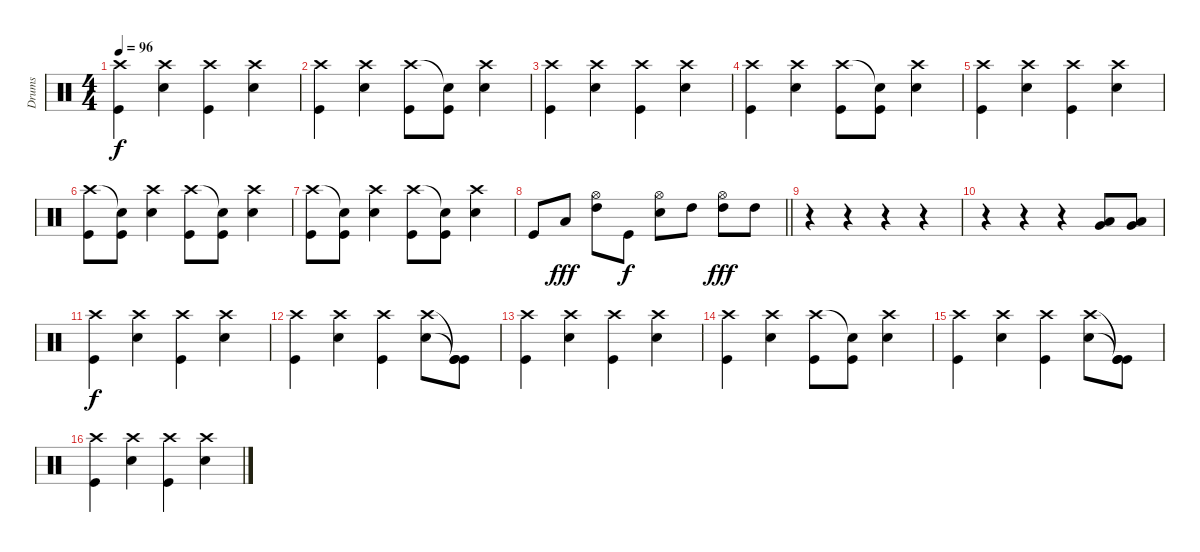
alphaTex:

\track ("Drums" "Drums") {instrument percussion}
\staff {score}
\articulation defaults
\ts (4 4)
\tempo 96
\clef neutral
\ks c
("Kick (hit)" "Crash high (hit)").4{dy f} ("Snare (hit) 2" "Crash high (hit)").4 ("Kick (hit)" "Crash high (hit)").4 ("Snare (hit) 2" "Crash high (hit)").4 |
("Kick (hit)" "Crash high (hit)").4 ("Snare (hit) 2" "Crash high (hit)").4 ("Kick (hit)" "Crash high (hit)").8 ("Kick (hit)" "Snare (hit)"{t}).8 ("Snare (hit) 2" "Crash high (hit)").4 |
("Kick (hit)" "Crash high (hit)").4 ("Snare (hit) 2" "Crash high (hit)").4 ("Kick (hit)" "Crash high (hit)").4 ("Snare (hit) 2" "Crash high (hit)").4 |
("Kick (hit)" "Crash high (hit)").4 ("Snare (hit) 2" "Crash high (hit)").4 ("Kick (hit)" "Crash high (hit)").8 ("Kick (hit)" "Snare (hit)"{t}).8 ("Snare (hit) 2" "Crash high (hit)").4 |
("Kick (hit)" "Crash high (hit)").4 ("Snare (hit) 2" "Crash high (hit)").4 ("Kick (hit)" "Crash high (hit)").4 ("Snare (hit) 2" "Crash high (hit)").4 |
("Kick (hit)" "Crash high (hit)").8 ("Kick (hit)" "Snare (hit)"{t}).8 ("Snare (hit) 2" "Crash high (hit)").4 ("Kick (hit)" "Crash high (hit)").8 ("Kick (hit)" "Snare (hit)"{t}).8 ("Snare (hit) 2" "Crash high (hit)").4 |
("Kick (hit)" "Crash high (hit)").8 ("Kick (hit)" "Snare (hit)"{t}).8 ("Snare (hit) 2" "Crash high (hit)").4 ("Kick (hit)" "Crash high (hit)").8 ("Kick (hit)" "Snare (hit)"{t}).8 ("Snare (hit) 2" "Crash high (hit)").4 |
\barLineRight lightlight "Kick (hit)".8 "Low Tom (hit)".8{dy fff}
("High Tom (hit)" "Hi-Hat (open)").8 "Kick (hit)".8{dy f} ("Snare (hit) 2" "Hi-Hat (open)").8 "High Tom (hit)".8 ("High Tom (hit)" "Hi-Hat (open)").8{dy fff} "High Tom (hit)".8 |
r.4 r.4 r.4 r.4 |
r.4 r.4 r.4 ("Low Tom (hit)" "Very Low Tom (hit)").8 ("Low Tom (hit)" "Very Low Tom (hit)").8 |
("Kick (hit)" "Crash high (hit)").4{dy f} ("Snare (hit) 2" "Crash high (hit)").4 ("Kick (hit)" "Crash high (hit)").4 ("Snare (hit) 2" "Crash high (hit)").4 |
("Kick (hit)" "Crash high (hit)").4 ("Snare (hit) 2" "Crash high (hit)").4 ("Kick (hit)" "Crash high (hit)").4 ("Snare (hit) 2" "Crash high (hit)").8 ("Kick (hit)"{t} "Kick (hit)"{t} "Kick (hit)").8 |
("Kick (hit)" "Crash high (hit)").4 ("Snare (hit) 2" "Crash high (hit)").4 ("Kick (hit)" "Crash high (hit)").4 ("Snare (hit) 2" "Crash high (hit)").4 |
("Kick (hit)" "Crash high (hit)").4 ("Snare (hit) 2" "Crash high (hit)").4 ("Kick (hit)" "Crash high (hit)").8 ("Kick (hit)" "Snare (hit)"{t}).8 ("Snare (hit) 2" "Crash high (hit)").4 |
("Kick (hit)" "Crash high (hit)").4 ("Snare (hit) 2" "Crash high (hit)").4 ("Kick (hit)" "Crash high (hit)").4 ("Snare (hit) 2" "Crash high (hit)").8 ("Kick (hit)"{t} "Kick (hit)"{t} "Kick (hit)").8 |
("Kick (hit)" "Crash high (hit)").4 ("Snare (hit) 2" "Crash high (hit)").4 ("Kick (hit)" "Crash high (hit)").4 ("Snare (hit) 2" "Crash high (hit)").4
